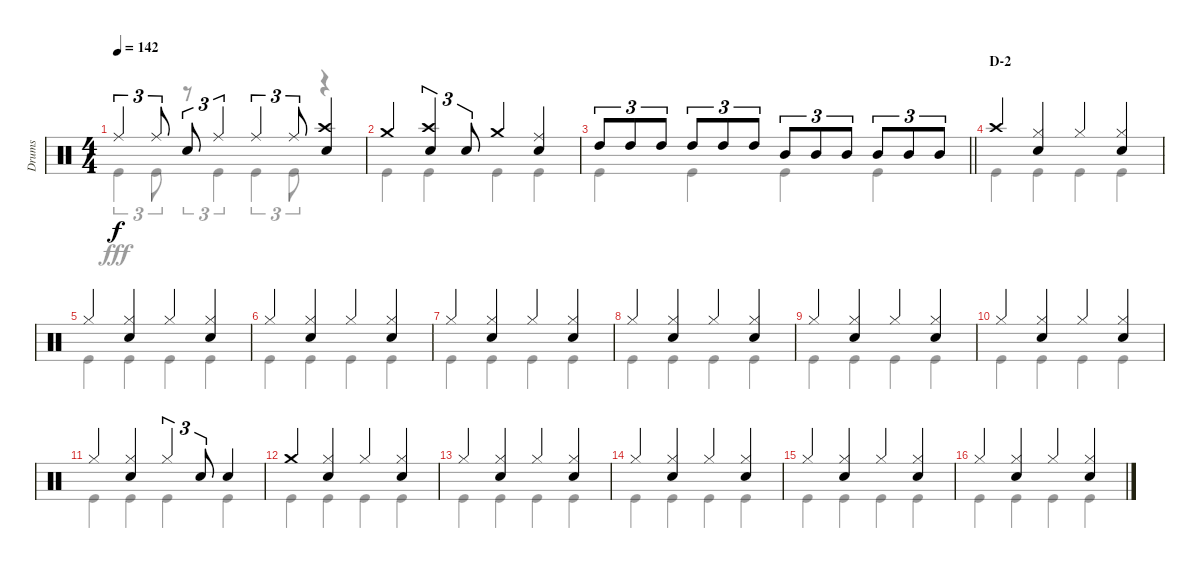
\track ("Drums" "Drums") {instrument percussion}
\staff {score}
\articulation defaults
\voice
\ts (4 4)
\tempo 142
\clef neutral
\ks c "Ride (middle)".4{tu (3 2) dy f} "Ride (middle)".8{tu (3 2)} "Snare (hit) 2".8{tu (3 2)} "Ride (middle)".4{tu (3 2)} "Ride (middle)".4{tu (3 2)} "Ride (middle)".8{tu (3 2)}
("Crash high (hit)" "Snare (hit) 2").4 |
"Crash medium (hit)".4 ("Crash high (hit)" "Snare (hit) 2").4{tu (3 2)} "Snare (hit) 2".8{tu (3 2)} "Crash medium (hit)".4 ("Ride (middle)" "Snare (hit) 2").4 |
\barLineRight lightlight "High Tom (hit)".8{tu (3 2)} "High Tom (hit)".8{tu (3 2)} "High Tom (hit)".8{tu (3 2)} "High Tom (hit)".8{tu (3 2)} "High Tom (hit)".8{tu (3 2)} "High Tom (hit)".8{tu (3 2)} "Mid Tom (hit)".8{tu (3 2)} "Mid Tom (hit)".8{tu (3 2)} "Mid Tom (hit)".8{tu (3 2)} "Mid Tom (hit)".8{tu (3 2)} "Mid Tom (hit)".8{tu (3 2)} "Mid Tom (hit)".8{tu (3 2)}
|
\section ("" "D-2")
"Crash high (hit)".4 ("Hi-Hat (closed)" "Snare (hit) 2").4 "Hi-Hat (closed)".4 ("Hi-Hat (closed)" "Snare (hit) 2").4 |
"Hi-Hat (closed)".4 ("Hi-Hat (closed)" "Snare (hit) 2").4 "Hi-Hat (closed)".4 ("Hi-Hat (closed)" "Snare (hit) 2").4 |
"Hi-Hat (closed)".4 ("Hi-Hat (closed)" "Snare (hit) 2").4 "Hi-Hat (closed)".4 ("Hi-Hat (closed)" "Snare (hit) 2").4 |
"Hi-Hat (closed)".4 ("Hi-Hat (closed)" "Snare (hit) 2").4 "Hi-Hat (closed)".4 ("Hi-Hat (closed)" "Snare (hit) 2").4 |
"Hi-Hat (closed)".4 ("Hi-Hat (closed)" "Snare (hit) 2").4 "Hi-Hat (closed)".4 ("Hi-Hat (closed)" "Snare (hit) 2").4 |
"Hi-Hat (closed)".4 ("Hi-Hat (closed)" "Snare (hit) 2").4 "Hi-Hat (closed)".4 ("Hi-Hat (closed)" "Snare (hit) 2").4 |
"Hi-Hat (closed)".4 ("Hi-Hat (closed)" "Snare (hit) 2").4 "Hi-Hat (closed)".4 ("Hi-Hat (closed)" "Snare (hit) 2").4 |
"Hi-Hat (closed)".4 ("Hi-Hat (closed)" "Snare (hit) 2").4 "Hi-Hat (closed)".4{tu (3 2)} "Snare (hit) 2".8{tu (3 2)} "Snare (hit) 2".4 |
"Crash medium (hit)".4 ("Hi-Hat (closed)" "Snare (hit) 2").4 "Hi-Hat (closed)".4 ("Hi-Hat (closed)" "Snare (hit) 2").4 |
"Hi-Hat (closed)".4 ("Hi-Hat (closed)" "Snare (hit) 2").4 "Hi-Hat (closed)".4 ("Hi-Hat (closed)" "Snare (hit) 2").4 |
"Hi-Hat (closed)".4 ("Hi-Hat (closed)" "Snare (hit) 2").4 "Hi-Hat (closed)".4 ("Hi-Hat (closed)" "Snare (hit) 2").4 |
"Hi-Hat (closed)".4 ("Hi-Hat (closed)" "Snare (hit) 2").4 "Hi-Hat (closed)".4 ("Hi-Hat (closed)" "Snare (hit) 2").4 |
"Hi-Hat (closed)".4 ("Hi-Hat (closed)" "Snare (hit) 2").4 "Hi-Hat (closed)".4 ("Hi-Hat (closed)" "Snare (hit) 2").4
\voice
\clef neutral
\ottava regular
\simile none
\ks c "Kick (hit)".4{tu (3 2) dy fff} "Kick (hit)".8{tu (3 2)}
r.8{tu (3 2)} "Kick (hit)".4{tu (3 2)} "Kick (hit)".4{tu (3 2)} "Kick (hit)".8{tu (3 2)} r.4 |
"Kick (hit)".4 "Kick (hit)".4 "Kick (hit)".4 "Kick (hit)".4 |
\barLineRight lightlight "Kick (hit)".4 "Kick (hit)".4 "Kick (hit)".4 "Kick (hit)".4
|
"Kick (hit)".4 "Kick (hit)".4 "Kick (hit)".4 "Kick (hit)".4 |
"Kick (hit)".4 "Kick (hit)".4 "Kick (hit)".4 "Kick (hit)".4 |
"Kick (hit)".4 "Kick (hit)".4 "Kick (hit)".4 "Kick (hit)".4 |
"Kick (hit)".4 "Kick (hit)".4 "Kick (hit)".4 "Kick (hit)".4 |
"Kick (hit)".4 "Kick (hit)".4 "Kick (hit)".4 "Kick (hit)".4 |
"Kick (hit)".4 "Kick (hit)".4 "Kick (hit)".4 "Kick (hit)".4 |
"Kick (hit)".4 "Kick (hit)".4 "Kick (hit)".4 "Kick (hit)".4 |
"Kick (hit)".4 "Kick (hit)".4 "Kick (hit)".4 "Kick (hit)".4 |
"Kick (hit)".4 "Kick (hit)".4 "Kick (hit)".4 "Kick (hit)".4 |
"Kick (hit)".4 "Kick (hit)".4 "Kick (hit)".4 "Kick (hit)".4 |
"Kick (hit)".4 "Kick (hit)".4 "Kick (hit)".4 "Kick (hit)".4 |
"Kick (hit)".4 "Kick (hit)".4 "Kick (hit)".4 "Kick (hit)".4 |
"Kick (hit)".4 "Kick (hit)".4 "Kick (hit)".4 "Kick (hit)".4
